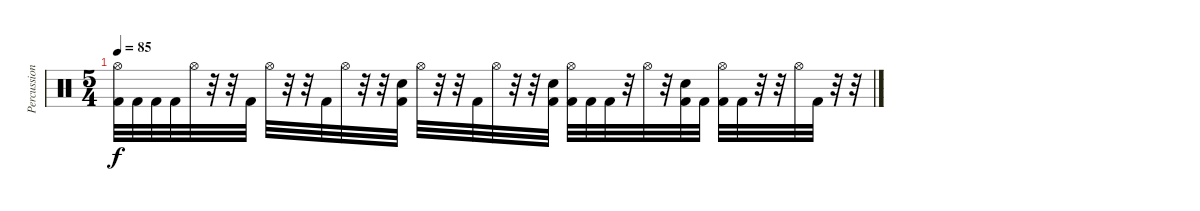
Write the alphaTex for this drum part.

\track ("Percussion" "Percussion") {instrument percussion}
\staff {score}
\articulation defaults
\ts (5 4)
\tempo 85
\clef neutral
\ks c
("Hi-Hat (open)" "Kick (hit) 2").32{dy f} "Kick (hit) 2".32 "Kick (hit) 2".32 "Kick (hit) 2".32 "Hi-Hat (open)".32 r.32 r.32 "Kick (hit) 2".32 "Hi-Hat (open)".32 r.32 r.32 "Kick (hit) 2".32 "Hi-Hat (open)".32 r.32 r.32 ("Electric Snare (hit)" "Kick (hit) 2").32 "Hi-Hat (open)".32 r.32 r.32 "Kick (hit) 2".32 "Hi-Hat (open)".32 r.32 r.32 ("Electric Snare (hit)" "Kick (hit) 2").32 ("Hi-Hat (open)" "Kick (hit) 2").32 "Kick (hit) 2".32 "Kick (hit) 2".32 r.32 "Hi-Hat (open)".32 r.32 ("Electric Snare (hit)" "Kick (hit) 2").32 "Kick (hit) 2".32 ("Hi-Hat (open)" "Kick (hit) 2").32 "Kick (hit) 2".32 r.32 r.32 "Hi-Hat (open)".32 "Kick (hit) 2".32 r.32 r.32
